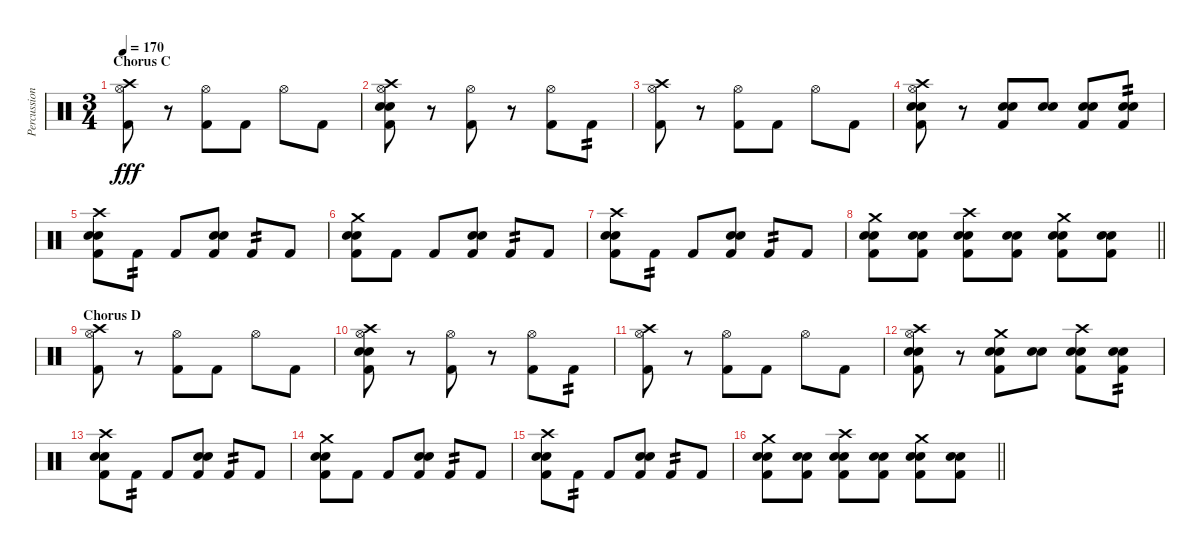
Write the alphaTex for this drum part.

\track ("Percussion" "Percussion") {instrument percussion}
\staff {score}
\articulation defaults
\ts (3 4)
\section ("" "Chorus C")
\tempo 170
\clef neutral
\ks c
("Crash high (hit)" "Hi-Hat (open)" "Kick (hit) 2").8{dy fff} r.8 ("Hi-Hat (open)" "Kick (hit) 2").8 "Kick (hit) 2".8 "Hi-Hat (open)".8 "Kick (hit) 2".8 |
("Crash high (hit)" "Hi-Hat (open)" "Electric Snare (hit)" "Snare (hit) 2" "Kick (hit) 2").8 r.8 ("Hi-Hat (open)" "Kick (hit) 2").8 r.8 ("Hi-Hat (open)" "Kick (hit) 2").8 "Kick (hit) 2".8{tp 2} |
("Crash high (hit)" "Hi-Hat (open)" "Kick (hit) 2").8 r.8 ("Hi-Hat (open)" "Kick (hit) 2").8 "Kick (hit) 2".8 "Hi-Hat (open)".8 "Kick (hit) 2".8 |
("Crash high (hit)" "Hi-Hat (open)" "Electric Snare (hit)" "Snare (hit) 2" "Kick (hit) 2").8 r.8 ("Electric Snare (hit)" "Snare (hit) 2" "Kick (hit) 2").8 ("Electric Snare (hit)" "Snare (hit) 2").8 ("Electric Snare (hit)" "Snare (hit) 2" "Kick (hit) 2").8 ("Electric Snare (hit)" "Snare (hit) 2" "Kick (hit) 2").8{tp 2} |
("Crash high (hit)" "Electric Snare (hit)" "Snare (hit) 2" "Kick (hit) 2").8 "Kick (hit) 2".8{tp 2} "Kick (hit) 2".8 ("Electric Snare (hit)" "Snare (hit) 2" "Kick (hit) 2").8 "Kick (hit) 2".8{tp 2} "Kick (hit) 2".8 |
("Crash medium (hit)" "Electric Snare (hit)" "Snare (hit) 2" "Kick (hit) 2").8 "Kick (hit) 2".8 "Kick (hit) 2".8 ("Electric Snare (hit)" "Snare (hit) 2" "Kick (hit) 2").8 "Kick (hit) 2".8{tp 2} "Kick (hit) 2".8 |
("Crash high (hit)" "Electric Snare (hit)" "Snare (hit) 2" "Kick (hit) 2").8 "Kick (hit) 2".8{tp 2} "Kick (hit) 2".8 ("Electric Snare (hit)" "Snare (hit) 2" "Kick (hit) 2").8 "Kick (hit) 2".8{tp 2} "Kick (hit) 2".8 |
\barLineRight lightlight
("Crash medium (hit)" "Electric Snare (hit)" "Snare (hit) 2" "Kick (hit) 2").8 ("Electric Snare (hit)" "Snare (hit) 2" "Kick (hit) 2").8 ("Crash high (hit)" "Electric Snare (hit)" "Snare (hit) 2" "Kick (hit) 2").8 ("Electric Snare (hit)" "Snare (hit) 2" "Kick (hit) 2").8 ("Crash medium (hit)" "Electric Snare (hit)" "Snare (hit) 2" "Kick (hit) 2").8 ("Electric Snare (hit)" "Snare (hit) 2" "Kick (hit) 2").8 |
\section ("" "Chorus D")
("Crash high (hit)" "Hi-Hat (open)" "Kick (hit) 2").8 r.8 ("Hi-Hat (open)" "Kick (hit) 2").8 "Kick (hit) 2".8 "Hi-Hat (open)".8 "Kick (hit) 2".8 |
("Crash high (hit)" "Hi-Hat (open)" "Electric Snare (hit)" "Snare (hit) 2" "Kick (hit) 2").8 r.8 ("Hi-Hat (open)" "Kick (hit) 2").8 r.8 ("Hi-Hat (open)" "Kick (hit) 2").8 "Kick (hit) 2".8{tp 2} |
("Crash high (hit)" "Hi-Hat (open)" "Kick (hit) 2").8 r.8 ("Hi-Hat (open)" "Kick (hit) 2").8 "Kick (hit) 2".8 "Hi-Hat (open)".8 "Kick (hit) 2".8 |
("Crash high (hit)" "Hi-Hat (open)" "Electric Snare (hit)" "Snare (hit) 2" "Kick (hit) 2").8 r.8 ("Crash medium (hit)" "Electric Snare (hit)" "Snare (hit) 2" "Kick (hit) 2").8 ("Electric Snare (hit)" "Snare (hit) 2").8 ("Crash high (hit)" "Electric Snare (hit)" "Snare (hit) 2" "Kick (hit) 2").8 ("Electric Snare (hit)" "Snare (hit) 2" "Kick (hit) 2").8{tp 2} |
("Crash high (hit)" "Electric Snare (hit)" "Snare (hit) 2" "Kick (hit) 2").8 "Kick (hit) 2".8{tp 2} "Kick (hit) 2".8 ("Electric Snare (hit)" "Snare (hit) 2" "Kick (hit) 2").8 "Kick (hit) 2".8{tp 2} "Kick (hit) 2".8 |
("Crash medium (hit)" "Electric Snare (hit)" "Snare (hit) 2" "Kick (hit) 2").8 "Kick (hit) 2".8 "Kick (hit) 2".8 ("Electric Snare (hit)" "Snare (hit) 2" "Kick (hit) 2").8 "Kick (hit) 2".8{tp 2} "Kick (hit) 2".8 |
("Crash high (hit)" "Electric Snare (hit)" "Snare (hit) 2" "Kick (hit) 2").8 "Kick (hit) 2".8{tp 2} "Kick (hit) 2".8 ("Electric Snare (hit)" "Snare (hit) 2" "Kick (hit) 2").8 "Kick (hit) 2".8{tp 2} "Kick (hit) 2".8 |
\barLineRight lightlight
("Crash medium (hit)" "Electric Snare (hit)" "Snare (hit) 2" "Kick (hit) 2").8 ("Electric Snare (hit)" "Snare (hit) 2" "Kick (hit) 2").8 ("Crash high (hit)" "Electric Snare (hit)" "Snare (hit) 2" "Kick (hit) 2").8 ("Electric Snare (hit)" "Snare (hit) 2" "Kick (hit) 2").8 ("Crash medium (hit)" "Electric Snare (hit)" "Snare (hit) 2" "Kick (hit) 2").8 ("Electric Snare (hit)" "Snare (hit) 2" "Kick (hit) 2").8
